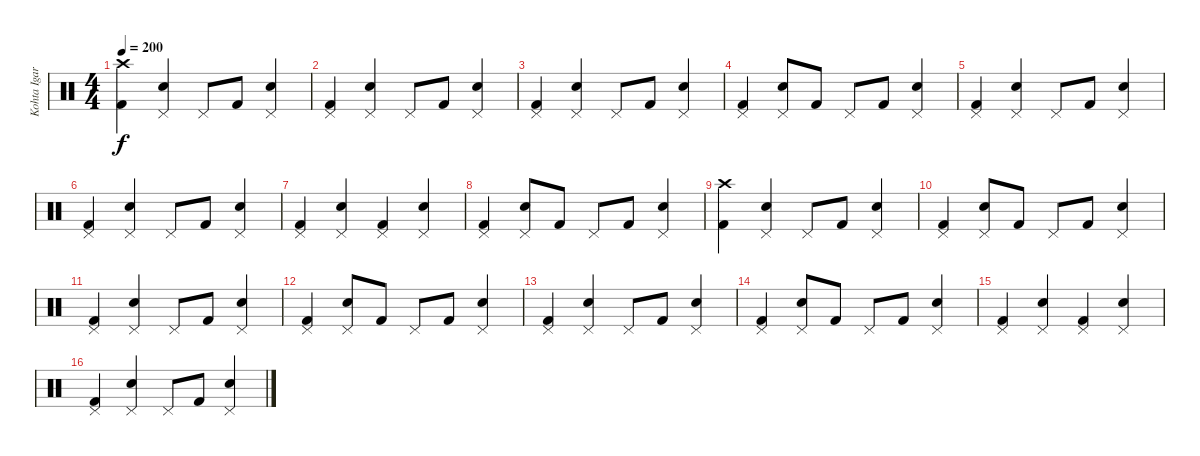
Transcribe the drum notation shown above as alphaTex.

\track ("Kohta Igarashi" "Kohta Igar") {instrument percussion}
\staff {score}
\articulation defaults
\ts (4 4)
\tempo 200
\clef neutral
\ks c
("Crash high (hit)" "Kick (hit) 2").4{dy f} ("Pedal Hi-Hat (hit)" "Electric Snare (hit)").4 "Pedal Hi-Hat (hit)".8 "Kick (hit) 2".8 ("Pedal Hi-Hat (hit)" "Electric Snare (hit)").4 |
("Pedal Hi-Hat (hit)" "Kick (hit) 2").4 ("Pedal Hi-Hat (hit)" "Electric Snare (hit)").4 "Pedal Hi-Hat (hit)".8 "Kick (hit) 2".8 ("Pedal Hi-Hat (hit)" "Electric Snare (hit)").4 |
("Pedal Hi-Hat (hit)" "Kick (hit) 2").4 ("Pedal Hi-Hat (hit)" "Electric Snare (hit)").4 "Pedal Hi-Hat (hit)".8 "Kick (hit) 2".8 ("Pedal Hi-Hat (hit)" "Electric Snare (hit)").4 |
("Pedal Hi-Hat (hit)" "Kick (hit) 2").4 ("Pedal Hi-Hat (hit)" "Electric Snare (hit)").8 "Kick (hit) 2".8 "Pedal Hi-Hat (hit)".8 "Kick (hit) 2".8 ("Pedal Hi-Hat (hit)" "Electric Snare (hit)").4 |
("Pedal Hi-Hat (hit)" "Kick (hit) 2").4 ("Pedal Hi-Hat (hit)" "Electric Snare (hit)").4 "Pedal Hi-Hat (hit)".8 "Kick (hit) 2".8 ("Pedal Hi-Hat (hit)" "Electric Snare (hit)").4 |
("Pedal Hi-Hat (hit)" "Kick (hit) 2").4 ("Pedal Hi-Hat (hit)" "Electric Snare (hit)").4 "Pedal Hi-Hat (hit)".8 "Kick (hit) 2".8 ("Pedal Hi-Hat (hit)" "Electric Snare (hit)").4 |
("Pedal Hi-Hat (hit)" "Kick (hit) 2").4 ("Pedal Hi-Hat (hit)" "Electric Snare (hit)").4 ("Pedal Hi-Hat (hit)" "Kick (hit) 2").4 ("Pedal Hi-Hat (hit)" "Electric Snare (hit)").4 |
("Pedal Hi-Hat (hit)" "Kick (hit) 2").4 ("Pedal Hi-Hat (hit)" "Electric Snare (hit)").8 "Kick (hit) 2".8 "Pedal Hi-Hat (hit)".8 "Kick (hit) 2".8 ("Pedal Hi-Hat (hit)" "Electric Snare (hit)").4 |
("Crash high (hit)" "Kick (hit) 2").4 ("Pedal Hi-Hat (hit)" "Electric Snare (hit)").4 "Pedal Hi-Hat (hit)".8 "Kick (hit) 2".8 ("Pedal Hi-Hat (hit)" "Electric Snare (hit)").4 |
("Pedal Hi-Hat (hit)" "Kick (hit) 2").4 ("Pedal Hi-Hat (hit)" "Electric Snare (hit)").8 "Kick (hit) 2".8 "Pedal Hi-Hat (hit)".8 "Kick (hit) 2".8 ("Pedal Hi-Hat (hit)" "Electric Snare (hit)").4 |
("Pedal Hi-Hat (hit)" "Kick (hit) 2").4 ("Pedal Hi-Hat (hit)" "Electric Snare (hit)").4 "Pedal Hi-Hat (hit)".8 "Kick (hit) 2".8 ("Pedal Hi-Hat (hit)" "Electric Snare (hit)").4 |
("Pedal Hi-Hat (hit)" "Kick (hit) 2").4 ("Pedal Hi-Hat (hit)" "Electric Snare (hit)").8 "Kick (hit) 2".8 "Pedal Hi-Hat (hit)".8 "Kick (hit) 2".8 ("Pedal Hi-Hat (hit)" "Electric Snare (hit)").4 |
("Pedal Hi-Hat (hit)" "Kick (hit) 2").4 ("Pedal Hi-Hat (hit)" "Electric Snare (hit)").4 "Pedal Hi-Hat (hit)".8 "Kick (hit) 2".8 ("Pedal Hi-Hat (hit)" "Electric Snare (hit)").4 |
("Pedal Hi-Hat (hit)" "Kick (hit) 2").4 ("Pedal Hi-Hat (hit)" "Electric Snare (hit)").8 "Kick (hit) 2".8 "Pedal Hi-Hat (hit)".8 "Kick (hit) 2".8 ("Pedal Hi-Hat (hit)" "Electric Snare (hit)").4 |
("Pedal Hi-Hat (hit)" "Kick (hit) 2").4 ("Pedal Hi-Hat (hit)" "Electric Snare (hit)").4 ("Pedal Hi-Hat (hit)" "Kick (hit) 2").4 ("Pedal Hi-Hat (hit)" "Electric Snare (hit)").4 |
("Pedal Hi-Hat (hit)" "Kick (hit) 2").4 ("Pedal Hi-Hat (hit)" "Electric Snare (hit)").4 "Pedal Hi-Hat (hit)".8 "Kick (hit) 2".8 ("Pedal Hi-Hat (hit)" "Electric Snare (hit)").4
